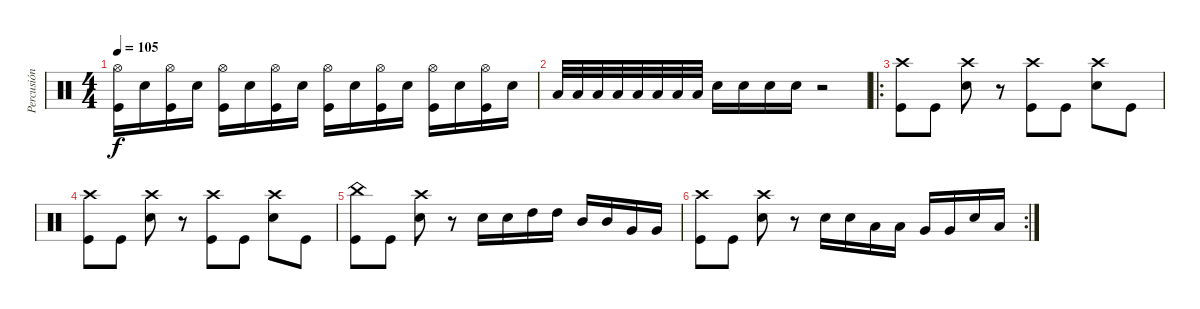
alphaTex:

\track ("Percusión" "Percusión") {instrument percussion}
\staff {score}
\articulation defaults
\ts (4 4)
\tempo 105
\clef neutral
\ks c
("Hi-Hat (open)" "Kick (hit)").16{dy f} "Snare (hit) 2".16 ("Hi-Hat (open)" "Kick (hit)").16 "Snare (hit) 2".16 ("Hi-Hat (open)" "Kick (hit)").16 "Snare (hit) 2".16 ("Hi-Hat (open)" "Kick (hit)").16 "Snare (hit) 2".16 ("Hi-Hat (open)" "Kick (hit)").16 "Snare (hit) 2".16 ("Hi-Hat (open)" "Kick (hit)").16 "Snare (hit) 2".16 ("Hi-Hat (open)" "Kick (hit)").16 "Snare (hit) 2".16 ("Hi-Hat (open)" "Kick (hit)").16 "Snare (hit) 2".16 |
"Low Floor Tom (hit)".32 "Low Floor Tom (hit)".32 "Low Floor Tom (hit)".32 "Low Floor Tom (hit)".32 "Low Floor Tom (hit)".32 "Low Floor Tom (hit)".32 "Low Floor Tom (hit)".32 "Low Floor Tom (hit)".32 "Snare (hit) 2".16 "Snare (hit) 2".16 "Snare (hit) 2".16 "Snare (hit) 2".16 r.2 |
\ro
("Crash high (hit)" "Kick (hit)").8 "Kick (hit)".8 ("Crash high (hit)" "Snare (hit) 2").8 r.8 ("Crash high (hit)" "Kick (hit)").8 "Kick (hit)".8 ("Crash high (hit)" "Snare (hit) 2").8 "Kick (hit)".8 |
("Crash high (hit)" "Kick (hit)").8 "Kick (hit)".8 ("Crash high (hit)" "Snare (hit) 2").8 r.8 ("Crash high (hit)" "Kick (hit)").8 "Kick (hit)".8 ("Crash high (hit)" "Snare (hit) 2").8 "Kick (hit)".8 |
("China (hit)" "Kick (hit)").8 "Kick (hit)".8 ("Crash high (hit)" "Snare (hit) 2").8 r.8 "Snare (hit) 2".16 "Snare (hit) 2".16 "High Tom (hit)".16 "High Tom (hit)".16 "Mid Tom (hit)".16 "Mid Tom (hit)".16 "Very Low Tom (hit)".16 "Very Low Tom (hit)".16 |
\rc 2
("Crash high (hit)" "Kick (hit)").8 "Kick (hit)".8 ("Crash high (hit)" "Snare (hit) 2").8 r.8 "Snare (hit) 2".16 "Snare (hit) 2".16 "Low Floor Tom (hit)".16 "Low Floor Tom (hit)".16 "Very Low Tom (hit)".16 "Very Low Tom (hit)".16 "Snare (hit) 2".16 "Low Floor Tom (hit)".16
